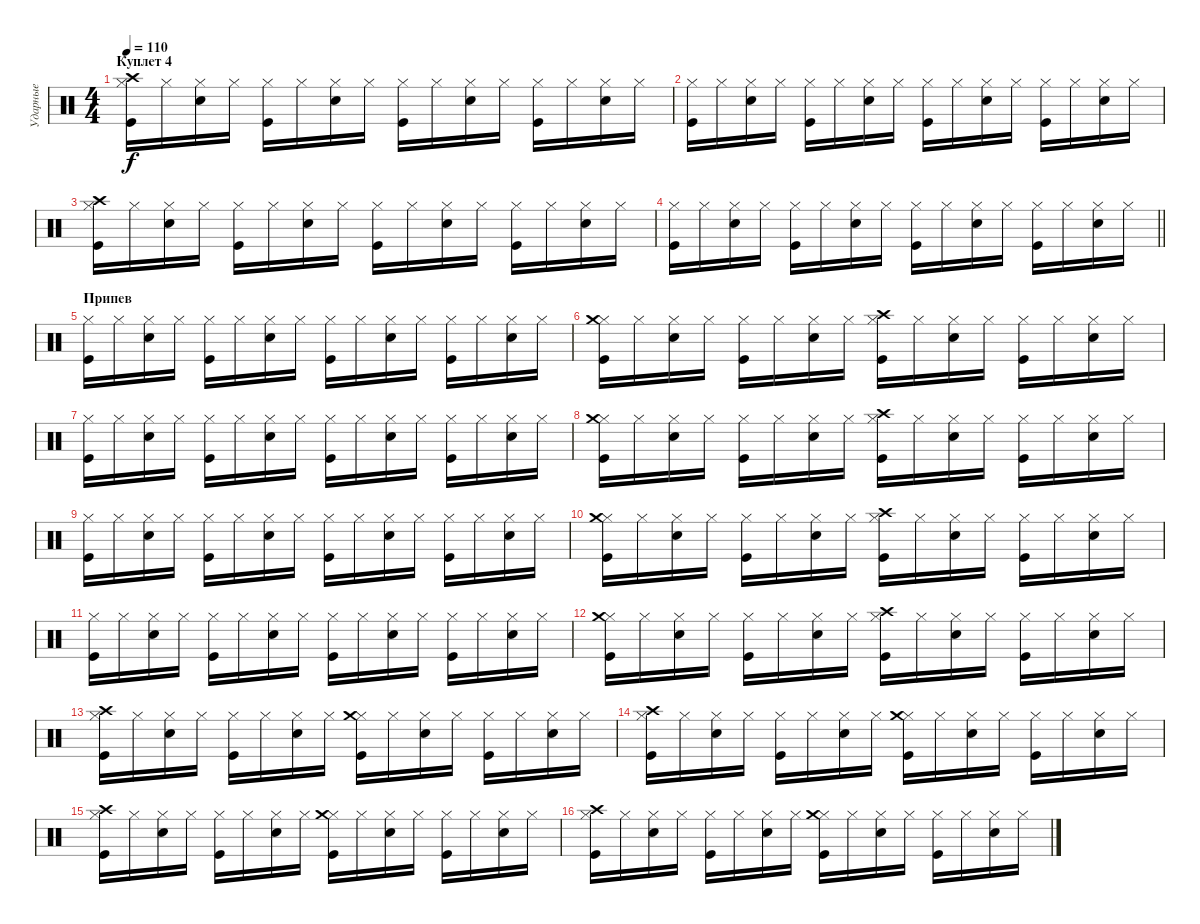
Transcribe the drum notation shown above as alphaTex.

\track ("Ударные" "Ударные") {instrument percussion}
\staff {score}
\articulation defaults
\ts (4 4)
\section ("" "Куплет 4")
\tempo 110
\clef neutral
\ks c
("Kick (hit)" "Hi-Hat (closed)" "Crash high (hit)").16{dy f} "Hi-Hat (closed)".16 ("Snare (hit) 2" "Hi-Hat (closed)").16 "Hi-Hat (closed)".16 ("Kick (hit)" "Hi-Hat (closed)").16 "Hi-Hat (closed)".16 ("Snare (hit) 2" "Hi-Hat (closed)").16 "Hi-Hat (closed)".16 ("Kick (hit)" "Hi-Hat (closed)").16 "Hi-Hat (closed)".16 ("Snare (hit) 2" "Hi-Hat (closed)").16 "Hi-Hat (closed)".16 ("Kick (hit)" "Hi-Hat (closed)").16 "Hi-Hat (closed)".16 ("Snare (hit) 2" "Hi-Hat (closed)").16 "Hi-Hat (closed)".16 |
("Kick (hit)" "Hi-Hat (closed)").16 "Hi-Hat (closed)".16 ("Snare (hit) 2" "Hi-Hat (closed)").16 "Hi-Hat (closed)".16 ("Kick (hit)" "Hi-Hat (closed)").16 "Hi-Hat (closed)".16 ("Snare (hit) 2" "Hi-Hat (closed)").16 "Hi-Hat (closed)".16 ("Kick (hit)" "Hi-Hat (closed)").16 "Hi-Hat (closed)".16 ("Snare (hit) 2" "Hi-Hat (closed)").16 "Hi-Hat (closed)".16 ("Kick (hit)" "Hi-Hat (closed)").16 "Hi-Hat (closed)".16 ("Snare (hit) 2" "Hi-Hat (closed)").16 "Hi-Hat (closed)".16 |
("Kick (hit)" "Hi-Hat (closed)" "Crash high (hit)").16 "Hi-Hat (closed)".16 ("Snare (hit) 2" "Hi-Hat (closed)").16 "Hi-Hat (closed)".16 ("Kick (hit)" "Hi-Hat (closed)").16 "Hi-Hat (closed)".16 ("Snare (hit) 2" "Hi-Hat (closed)").16 "Hi-Hat (closed)".16 ("Kick (hit)" "Hi-Hat (closed)").16 "Hi-Hat (closed)".16 ("Snare (hit) 2" "Hi-Hat (closed)").16 "Hi-Hat (closed)".16 ("Kick (hit)" "Hi-Hat (closed)").16 "Hi-Hat (closed)".16 ("Snare (hit) 2" "Hi-Hat (closed)").16 "Hi-Hat (closed)".16 |
\barLineRight lightlight
("Kick (hit)" "Hi-Hat (closed)").16 "Hi-Hat (closed)".16 ("Snare (hit) 2" "Hi-Hat (closed)").16 "Hi-Hat (closed)".16 ("Kick (hit)" "Hi-Hat (closed)").16 "Hi-Hat (closed)".16 ("Snare (hit) 2" "Hi-Hat (closed)").16 "Hi-Hat (closed)".16 ("Kick (hit)" "Hi-Hat (closed)").16 "Hi-Hat (closed)".16 ("Snare (hit) 2" "Hi-Hat (closed)").16 "Hi-Hat (closed)".16 ("Kick (hit)" "Hi-Hat (closed)").16 "Hi-Hat (closed)".16 ("Snare (hit) 2" "Hi-Hat (closed)").16 "Hi-Hat (closed)".16 |
\section ("" "Припев")
("Kick (hit)" "Hi-Hat (closed)").16 "Hi-Hat (closed)".16 ("Snare (hit) 2" "Hi-Hat (closed)").16 "Hi-Hat (closed)".16 ("Kick (hit)" "Hi-Hat (closed)").16 "Hi-Hat (closed)".16 ("Snare (hit) 2" "Hi-Hat (closed)").16 "Hi-Hat (closed)".16 ("Kick (hit)" "Hi-Hat (closed)").16 "Hi-Hat (closed)".16 ("Snare (hit) 2" "Hi-Hat (closed)").16 "Hi-Hat (closed)".16 ("Kick (hit)" "Hi-Hat (closed)").16 "Hi-Hat (closed)".16 ("Snare (hit) 2" "Hi-Hat (closed)").16 "Hi-Hat (closed)".16 |
("Kick (hit)" "Hi-Hat (closed)" "Crash medium (hit)").16 "Hi-Hat (closed)".16 ("Snare (hit) 2" "Hi-Hat (closed)").16 "Hi-Hat (closed)".16 ("Kick (hit)" "Hi-Hat (closed)").16 "Hi-Hat (closed)".16 ("Snare (hit) 2" "Hi-Hat (closed)").16 "Hi-Hat (closed)".16 ("Kick (hit)" "Hi-Hat (closed)" "Crash high (hit)").16 "Hi-Hat (closed)".16 ("Snare (hit) 2" "Hi-Hat (closed)").16 "Hi-Hat (closed)".16 ("Kick (hit)" "Hi-Hat (closed)").16 "Hi-Hat (closed)".16 ("Snare (hit) 2" "Hi-Hat (closed)").16 "Hi-Hat (closed)".16 |
("Kick (hit)" "Hi-Hat (closed)").16 "Hi-Hat (closed)".16 ("Snare (hit) 2" "Hi-Hat (closed)").16 "Hi-Hat (closed)".16 ("Kick (hit)" "Hi-Hat (closed)").16 "Hi-Hat (closed)".16 ("Snare (hit) 2" "Hi-Hat (closed)").16 "Hi-Hat (closed)".16 ("Kick (hit)" "Hi-Hat (closed)").16 "Hi-Hat (closed)".16 ("Snare (hit) 2" "Hi-Hat (closed)").16 "Hi-Hat (closed)".16 ("Kick (hit)" "Hi-Hat (closed)").16 "Hi-Hat (closed)".16 ("Snare (hit) 2" "Hi-Hat (closed)").16 "Hi-Hat (closed)".16 |
("Kick (hit)" "Hi-Hat (closed)" "Crash medium (hit)").16 "Hi-Hat (closed)".16 ("Snare (hit) 2" "Hi-Hat (closed)").16 "Hi-Hat (closed)".16 ("Kick (hit)" "Hi-Hat (closed)").16 "Hi-Hat (closed)".16 ("Snare (hit) 2" "Hi-Hat (closed)").16 "Hi-Hat (closed)".16 ("Kick (hit)" "Hi-Hat (closed)" "Crash high (hit)").16 "Hi-Hat (closed)".16 ("Snare (hit) 2" "Hi-Hat (closed)").16 "Hi-Hat (closed)".16 ("Kick (hit)" "Hi-Hat (closed)").16 "Hi-Hat (closed)".16 ("Snare (hit) 2" "Hi-Hat (closed)").16 "Hi-Hat (closed)".16 |
("Kick (hit)" "Hi-Hat (closed)").16 "Hi-Hat (closed)".16 ("Snare (hit) 2" "Hi-Hat (closed)").16 "Hi-Hat (closed)".16 ("Kick (hit)" "Hi-Hat (closed)").16 "Hi-Hat (closed)".16 ("Snare (hit) 2" "Hi-Hat (closed)").16 "Hi-Hat (closed)".16 ("Kick (hit)" "Hi-Hat (closed)").16 "Hi-Hat (closed)".16 ("Snare (hit) 2" "Hi-Hat (closed)").16 "Hi-Hat (closed)".16 ("Kick (hit)" "Hi-Hat (closed)").16 "Hi-Hat (closed)".16 ("Snare (hit) 2" "Hi-Hat (closed)").16 "Hi-Hat (closed)".16 |
("Kick (hit)" "Hi-Hat (closed)" "Crash medium (hit)").16 "Hi-Hat (closed)".16 ("Snare (hit) 2" "Hi-Hat (closed)").16 "Hi-Hat (closed)".16 ("Kick (hit)" "Hi-Hat (closed)").16 "Hi-Hat (closed)".16 ("Snare (hit) 2" "Hi-Hat (closed)").16 "Hi-Hat (closed)".16 ("Kick (hit)" "Hi-Hat (closed)" "Crash high (hit)").16 "Hi-Hat (closed)".16 ("Snare (hit) 2" "Hi-Hat (closed)").16 "Hi-Hat (closed)".16 ("Kick (hit)" "Hi-Hat (closed)").16 "Hi-Hat (closed)".16 ("Snare (hit) 2" "Hi-Hat (closed)").16 "Hi-Hat (closed)".16 |
("Kick (hit)" "Hi-Hat (closed)").16 "Hi-Hat (closed)".16 ("Snare (hit) 2" "Hi-Hat (closed)").16 "Hi-Hat (closed)".16 ("Kick (hit)" "Hi-Hat (closed)").16 "Hi-Hat (closed)".16 ("Snare (hit) 2" "Hi-Hat (closed)").16 "Hi-Hat (closed)".16 ("Kick (hit)" "Hi-Hat (closed)").16 "Hi-Hat (closed)".16 ("Snare (hit) 2" "Hi-Hat (closed)").16 "Hi-Hat (closed)".16 ("Kick (hit)" "Hi-Hat (closed)").16 "Hi-Hat (closed)".16 ("Snare (hit) 2" "Hi-Hat (closed)").16 "Hi-Hat (closed)".16 |
("Kick (hit)" "Hi-Hat (closed)" "Crash medium (hit)").16 "Hi-Hat (closed)".16 ("Snare (hit) 2" "Hi-Hat (closed)").16 "Hi-Hat (closed)".16 ("Kick (hit)" "Hi-Hat (closed)").16 "Hi-Hat (closed)".16 ("Snare (hit) 2" "Hi-Hat (closed)").16 "Hi-Hat (closed)".16 ("Kick (hit)" "Hi-Hat (closed)" "Crash high (hit)").16 "Hi-Hat (closed)".16 ("Snare (hit) 2" "Hi-Hat (closed)").16 "Hi-Hat (closed)".16 ("Kick (hit)" "Hi-Hat (closed)").16 "Hi-Hat (closed)".16 ("Snare (hit) 2" "Hi-Hat (closed)").16 "Hi-Hat (closed)".16 |
("Kick (hit)" "Hi-Hat (closed)" "Crash high (hit)").16 "Hi-Hat (closed)".16 ("Snare (hit) 2" "Hi-Hat (closed)").16 "Hi-Hat (closed)".16 ("Kick (hit)" "Hi-Hat (closed)").16 "Hi-Hat (closed)".16 ("Snare (hit) 2" "Hi-Hat (closed)").16 "Hi-Hat (closed)".16 ("Kick (hit)" "Hi-Hat (closed)" "Crash medium (hit)").16 "Hi-Hat (closed)".16 ("Snare (hit) 2" "Hi-Hat (closed)").16 "Hi-Hat (closed)".16 ("Kick (hit)" "Hi-Hat (closed)").16 "Hi-Hat (closed)".16 ("Snare (hit) 2" "Hi-Hat (closed)").16 "Hi-Hat (closed)".16 |
("Kick (hit)" "Hi-Hat (closed)" "Crash high (hit)").16 "Hi-Hat (closed)".16 ("Snare (hit) 2" "Hi-Hat (closed)").16 "Hi-Hat (closed)".16 ("Kick (hit)" "Hi-Hat (closed)").16 "Hi-Hat (closed)".16 ("Snare (hit) 2" "Hi-Hat (closed)").16 "Hi-Hat (closed)".16 ("Kick (hit)" "Hi-Hat (closed)" "Crash medium (hit)").16 "Hi-Hat (closed)".16 ("Snare (hit) 2" "Hi-Hat (closed)").16 "Hi-Hat (closed)".16 ("Kick (hit)" "Hi-Hat (closed)").16 "Hi-Hat (closed)".16 ("Snare (hit) 2" "Hi-Hat (closed)").16 "Hi-Hat (closed)".16 |
("Kick (hit)" "Hi-Hat (closed)" "Crash high (hit)").16 "Hi-Hat (closed)".16 ("Snare (hit) 2" "Hi-Hat (closed)").16 "Hi-Hat (closed)".16 ("Kick (hit)" "Hi-Hat (closed)").16 "Hi-Hat (closed)".16 ("Snare (hit) 2" "Hi-Hat (closed)").16 "Hi-Hat (closed)".16 ("Kick (hit)" "Hi-Hat (closed)" "Crash medium (hit)").16 "Hi-Hat (closed)".16 ("Snare (hit) 2" "Hi-Hat (closed)").16 "Hi-Hat (closed)".16 ("Kick (hit)" "Hi-Hat (closed)").16 "Hi-Hat (closed)".16 ("Snare (hit) 2" "Hi-Hat (closed)").16 "Hi-Hat (closed)".16 |
("Kick (hit)" "Hi-Hat (closed)" "Crash high (hit)").16 "Hi-Hat (closed)".16 ("Snare (hit) 2" "Hi-Hat (closed)").16 "Hi-Hat (closed)".16 ("Kick (hit)" "Hi-Hat (closed)").16 "Hi-Hat (closed)".16 ("Snare (hit) 2" "Hi-Hat (closed)").16 "Hi-Hat (closed)".16 ("Kick (hit)" "Hi-Hat (closed)" "Crash medium (hit)").16 "Hi-Hat (closed)".16 ("Snare (hit) 2" "Hi-Hat (closed)").16 "Hi-Hat (closed)".16 ("Kick (hit)" "Hi-Hat (closed)").16 "Hi-Hat (closed)".16 ("Snare (hit) 2" "Hi-Hat (closed)").16 "Hi-Hat (closed)".16
